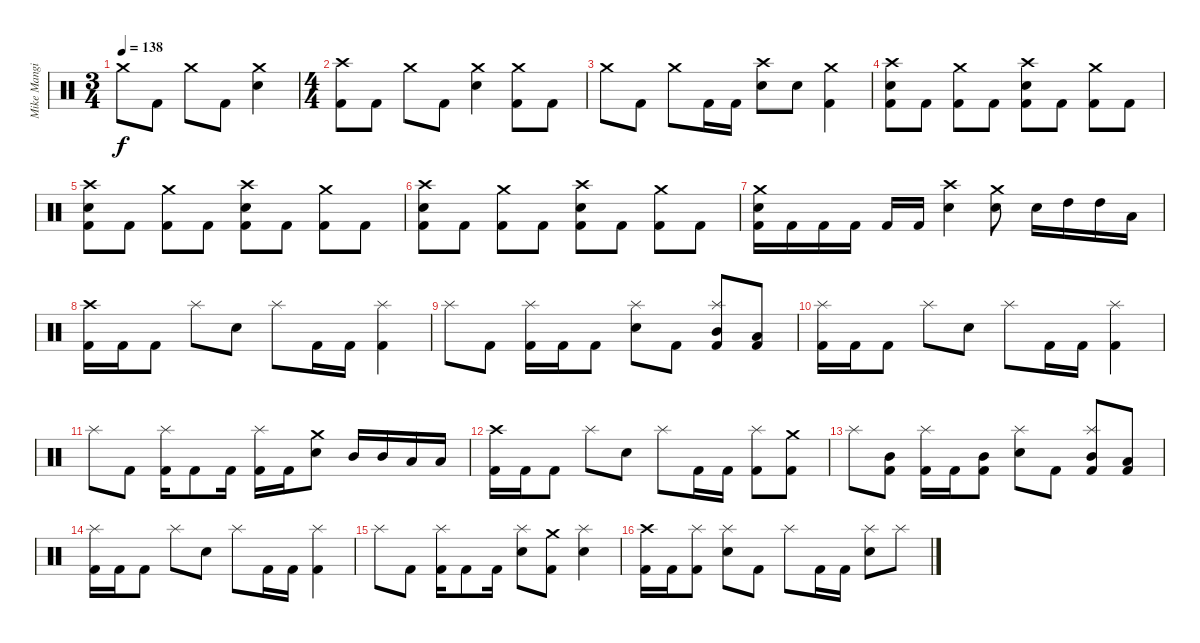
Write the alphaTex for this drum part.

\track ("Mike Mangini" "Mike Mangi") {instrument percussion}
\staff {score}
\articulation defaults
\ts (3 4)
\tempo 138
\clef neutral
\ks c "Crash medium (hit)".8{dy f} "Kick (hit) 2".8 "Crash medium (hit)".8 "Kick (hit) 2".8
("Crash medium (hit)" "Electric Snare (hit)").4 |
\ts (4 4)
("Crash high (hit)" "Kick (hit) 2").8 "Kick (hit) 2".8 "Crash medium (hit)".8 "Kick (hit) 2".8 ("Crash medium (hit)" "Electric Snare (hit)").4 ("Crash medium (hit)" "Kick (hit) 2").8 "Kick (hit) 2".8 |
"Crash medium (hit)".8 "Kick (hit) 2".8 "Crash medium (hit)".8 "Kick (hit) 2".16 "Kick (hit) 2".16 ("Crash high (hit)" "Electric Snare (hit)").8 "Electric Snare (hit)".8 ("Crash medium (hit)" "Kick (hit) 2").4 |
("Crash high (hit)" "Electric Snare (hit)" "Kick (hit) 2").8 "Kick (hit) 2".8 ("Crash medium (hit)" "Kick (hit) 2").8 "Kick (hit) 2".8 ("Crash high (hit)" "Electric Snare (hit)" "Kick (hit) 2").8 "Kick (hit) 2".8 ("Crash medium (hit)" "Kick (hit) 2").8 "Kick (hit) 2".8 |
("Crash high (hit)" "Electric Snare (hit)" "Kick (hit) 2").8 "Kick (hit) 2".8 ("Crash medium (hit)" "Kick (hit) 2").8 "Kick (hit) 2".8 ("Crash high (hit)" "Electric Snare (hit)" "Kick (hit) 2").8 "Kick (hit) 2".8 ("Crash medium (hit)" "Kick (hit) 2").8 "Kick (hit) 2".8 |
("Crash high (hit)" "Electric Snare (hit)" "Kick (hit) 2").8 "Kick (hit) 2".8 ("Crash medium (hit)" "Kick (hit) 2").8 "Kick (hit) 2".8 ("Crash high (hit)" "Electric Snare (hit)" "Kick (hit) 2").8 "Kick (hit) 2".8 ("Crash medium (hit)" "Kick (hit) 2").8 "Kick (hit) 2".8 |
("Crash medium (hit)" "Electric Snare (hit)" "Kick (hit) 2").16 "Kick (hit) 2".16 "Kick (hit) 2".16 "Kick (hit) 2".16 "Kick (hit) 2".16 "Kick (hit) 2".16 ("Crash high (hit)" "Electric Snare (hit)").4 ("Crash medium (hit)" "Electric Snare (hit)").8 "Electric Snare (hit)".16 "High Tom (hit)".16 "High Tom (hit)".16 "Low Tom (hit)".16 |
("Crash high (hit)" "Kick (hit) 2").16 "Kick (hit) 2".16 "Kick (hit) 2".8 "Splash (hit)".8 "Electric Snare (hit)".8 "Splash (hit)".8 "Kick (hit) 2".16 "Kick (hit) 2".16 ("Splash (hit)" "Kick (hit) 2").4 |
"Splash (hit)".8 "Kick (hit) 2".8 ("Splash (hit)" "Kick (hit) 2").16 "Kick (hit) 2".16 "Kick (hit) 2".8 ("Splash (hit)" "Electric Snare (hit)").8 "Kick (hit) 2".8 ("Splash (hit)" "Mid Tom (hit)" "Kick (hit) 2").8 ("Low Tom (hit)" "Kick (hit) 2").8 |
("Splash (hit)" "Kick (hit) 2").16 "Kick (hit) 2".16 "Kick (hit) 2".8 "Splash (hit)".8 "Electric Snare (hit)".8 "Splash (hit)".8 "Kick (hit) 2".16 "Kick (hit) 2".16 ("Splash (hit)" "Kick (hit) 2").4 |
"Splash (hit)".8 "Kick (hit) 2".8 ("Splash (hit)" "Kick (hit) 2").16 "Kick (hit) 2".8 "Kick (hit) 2".16 ("Splash (hit)" "Kick (hit) 2").16 "Kick (hit) 2".16 ("Crash medium (hit)" "Electric Snare (hit)").8 "Mid Tom (hit)".16 "Mid Tom (hit)".16 "Low Tom (hit)".16 "Low Tom (hit)".16 |
("Crash high (hit)" "Kick (hit) 2").16 "Kick (hit) 2".16 "Kick (hit) 2".8 "Splash (hit)".8 "Electric Snare (hit)".8 "Splash (hit)".8 "Kick (hit) 2".16 "Kick (hit) 2".16 ("Splash (hit)" "Kick (hit) 2").8 ("Crash medium (hit)" "Kick (hit) 2").8 |
"Splash (hit)".8 ("Mid Tom (hit)" "Kick (hit) 2").8 ("Splash (hit)" "Kick (hit) 2").16 "Kick (hit) 2".16 ("Mid Tom (hit)" "Kick (hit) 2").8 ("Splash (hit)" "Electric Snare (hit)").8 "Kick (hit) 2".8 ("Splash (hit)" "Mid Tom (hit)" "Kick (hit) 2").8 ("Low Tom (hit)" "Kick (hit) 2").8 |
("Splash (hit)" "Kick (hit) 2").16 "Kick (hit) 2".16 "Kick (hit) 2".8 "Splash (hit)".8 "Electric Snare (hit)".8 "Splash (hit)".8 "Kick (hit) 2".16 "Kick (hit) 2".16 ("Splash (hit)" "Kick (hit) 2").4 |
"Splash (hit)".8 "Kick (hit) 2".8 ("Splash (hit)" "Kick (hit) 2").16 "Kick (hit) 2".8 "Kick (hit) 2".16 ("Splash (hit)" "Electric Snare (hit)").8 ("Crash medium (hit)" "Kick (hit) 2").8 ("Splash (hit)" "Electric Snare (hit)").4 |
("Crash high (hit)" "Kick (hit) 2").16 "Kick (hit) 2".16 ("Splash (hit)" "Kick (hit) 2").8 ("Splash (hit)" "Electric Snare (hit)").8 "Kick (hit) 2".8 "Splash (hit)".8 "Kick (hit) 2".16 "Kick (hit) 2".16 ("Splash (hit)" "Electric Snare (hit)").8 "Splash (hit)".8
